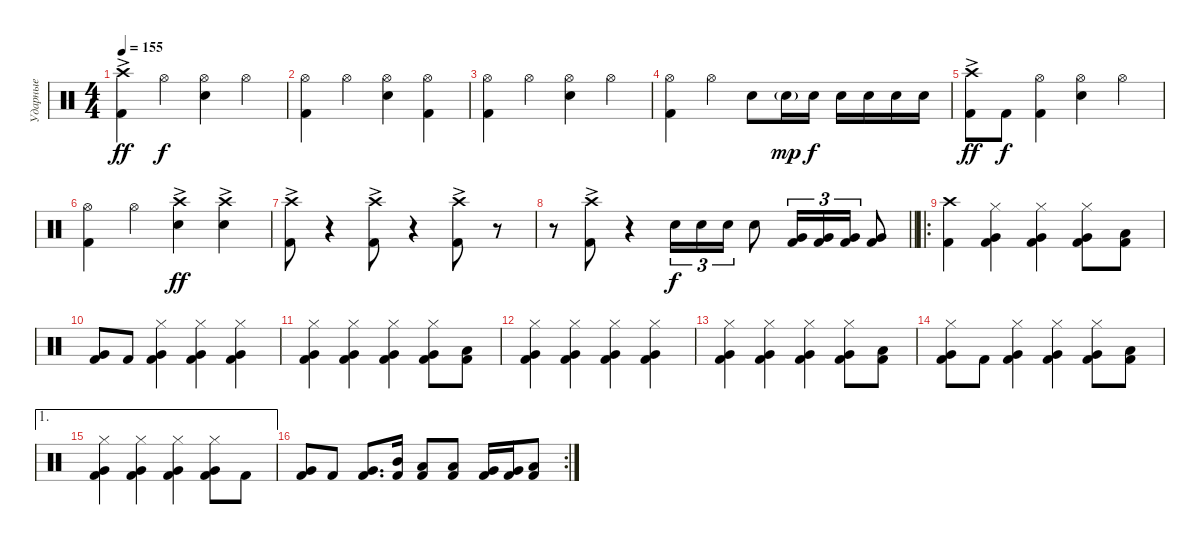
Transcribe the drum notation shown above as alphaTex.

\track ("Ударные" "Ударные") {instrument percussion}
\staff
\articulation defaults
\ts (4 4)
\tempo 155
\clef neutral
\ks c
("Kick (hit) 2" "Crash high (hit)"{ac}).4{dy ff} "Hi-Hat (open)".4{dy f} ("Snare (hit) 2" "Hi-Hat (open)").4 "Hi-Hat (open)".4 |
("Kick (hit) 2" "Hi-Hat (open)").4 "Hi-Hat (open)".4 ("Snare (hit) 2" "Hi-Hat (open)").4 ("Kick (hit) 2" "Hi-Hat (open)").4 |
("Kick (hit) 2" "Hi-Hat (open)").4 "Hi-Hat (open)".4 ("Snare (hit) 2" "Hi-Hat (open)").4 "Hi-Hat (open)".4 |
("Kick (hit) 2" "Hi-Hat (open)").4 "Hi-Hat (open)".4 "Snare (hit) 2".8 "Snare (hit) 2"{g}.16{dy mp} "Snare (hit) 2".16{dy f} "Snare (hit) 2".16 "Snare (hit) 2".16 "Snare (hit) 2".16 "Snare (hit) 2".16 |
("Kick (hit) 2" "Crash high (hit)"{ac}).8{dy ff} "Kick (hit) 2".8{dy f} ("Kick (hit) 2" "Hi-Hat (open)").4 ("Snare (hit) 2" "Hi-Hat (open)").4 "Hi-Hat (open)".4 |
("Kick (hit) 2" "Hi-Hat (open)").4 "Hi-Hat (open)".4 ("Snare (hit) 2" "Crash high (hit)"{ac}).4{dy ff} ("Snare (hit) 2" "Crash high (hit)"{ac}).4 |
("Kick (hit) 2" "Crash high (hit)"{ac}).8 r.4 ("Kick (hit) 2" "Crash high (hit)"{ac}).8 r.4 ("Kick (hit) 2" "Crash high (hit)"{ac}).8 r.8 |
\barLineRight lightlight
r.8 ("Kick (hit) 2" "Crash high (hit)"{ac}).8 r.4 "Snare (hit) 2".16{tu (3 2) dy f} "Snare (hit) 2".16{tu (3 2)} "Snare (hit) 2".16{tu (3 2)} "Snare (hit) 2".8 ("Kick (hit) 2" "Very Low Tom (hit)").16{tu (3 2)} ("Kick (hit) 2" "Very Low Tom (hit)").16{tu (3 2)} ("Kick (hit) 2" "Very Low Tom (hit)").16{tu (3 2)} ("Kick (hit) 2" "Very Low Tom (hit)").8 |
\ro
("Kick (hit) 2" "Crash high (hit)").4 ("Kick (hit) 2" "Very Low Tom (hit)" "Hi-Hat (closed)").4 ("Kick (hit) 2" "Very Low Tom (hit)" "Hi-Hat (closed)").4 ("Kick (hit) 2" "Very Low Tom (hit)" "Hi-Hat (closed)").8 ("Kick (hit) 2" "Low Floor Tom (hit)").8 |
("Kick (hit) 2" "Very Low Tom (hit)").8 "Kick (hit) 2".8 ("Kick (hit) 2" "Very Low Tom (hit)" "Hi-Hat (closed)").4 ("Kick (hit) 2" "Very Low Tom (hit)" "Hi-Hat (closed)").4 ("Kick (hit) 2" "Very Low Tom (hit)" "Hi-Hat (closed)").4 |
("Kick (hit) 2" "Very Low Tom (hit)" "Hi-Hat (closed)").4 ("Kick (hit) 2" "Very Low Tom (hit)" "Hi-Hat (closed)").4 ("Kick (hit) 2" "Very Low Tom (hit)" "Hi-Hat (closed)").4 ("Kick (hit) 2" "Very Low Tom (hit)" "Hi-Hat (closed)").8 ("Kick (hit) 2" "Low Floor Tom (hit)").8 |
("Kick (hit) 2" "Very Low Tom (hit)" "Hi-Hat (closed)").4 ("Kick (hit) 2" "Very Low Tom (hit)" "Hi-Hat (closed)").4 ("Kick (hit) 2" "Very Low Tom (hit)" "Hi-Hat (closed)").4 ("Kick (hit) 2" "Very Low Tom (hit)" "Hi-Hat (closed)").4 |
("Kick (hit) 2" "Very Low Tom (hit)" "Hi-Hat (closed)").4 ("Kick (hit) 2" "Very Low Tom (hit)" "Hi-Hat (closed)").4 ("Kick (hit) 2" "Very Low Tom (hit)" "Hi-Hat (closed)").4 ("Kick (hit) 2" "Very Low Tom (hit)" "Hi-Hat (closed)").8 ("Kick (hit) 2" "Low Floor Tom (hit)").8 |
("Kick (hit) 2" "Very Low Tom (hit)" "Hi-Hat (closed)").8 "Kick (hit) 2".8 ("Kick (hit) 2" "Very Low Tom (hit)" "Hi-Hat (closed)").4 ("Kick (hit) 2" "Very Low Tom (hit)" "Hi-Hat (closed)").4 ("Kick (hit) 2" "Very Low Tom (hit)" "Hi-Hat (closed)").8 ("Kick (hit) 2" "Low Floor Tom (hit)").8 |
\ae 1
("Kick (hit) 2" "Very Low Tom (hit)" "Hi-Hat (closed)").4 ("Kick (hit) 2" "Very Low Tom (hit)" "Hi-Hat (closed)").4 ("Kick (hit) 2" "Very Low Tom (hit)" "Hi-Hat (closed)").4 ("Kick (hit) 2" "Very Low Tom (hit)" "Hi-Hat (closed)").8 "Kick (hit) 2".8 |
\rc 2
("Kick (hit) 2" "Very Low Tom (hit)").8 "Kick (hit) 2".8 ("Kick (hit) 2" "Very Low Tom (hit)").8{d} ("Kick (hit) 2" "Mid Tom (hit)").16 ("Kick (hit) 2" "Low Tom (hit)").8 ("Kick (hit) 2" "Low Tom (hit)").8 ("Kick (hit) 2" "Very Low Tom (hit)").16 ("Kick (hit) 2" "Very Low Tom (hit)").16 ("Kick (hit) 2" "Low Floor Tom (hit)").8
